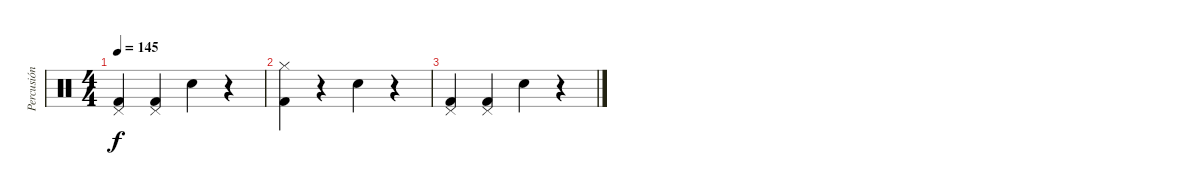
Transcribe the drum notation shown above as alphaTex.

\track ("Percusión" "Percusión") {instrument percussion}
\staff {score}
\articulation defaults
\ts (4 4)
\tempo 145
\clef neutral
\ks c
("Pedal Hi-Hat (hit)" "Kick (hit) 2").4{dy f} ("Pedal Hi-Hat (hit)" "Kick (hit) 2").4 "Electric Snare (hit)".4 r.4 |
("Hi-Hat (closed)" "Kick (hit) 2").4 r.4 "Electric Snare (hit)".4 r.4 |
("Pedal Hi-Hat (hit)" "Kick (hit) 2").4 ("Pedal Hi-Hat (hit)" "Kick (hit) 2").4 "Electric Snare (hit)".4 r.4
